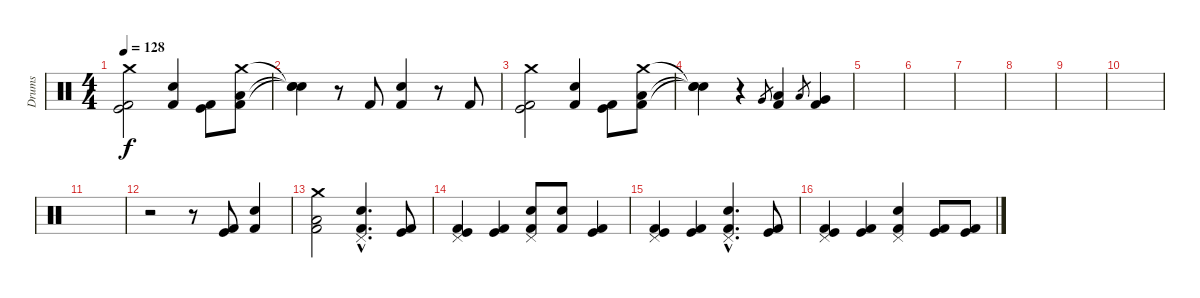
\track ("Drums" "Drums") {instrument percussion}
\staff {score}
\articulation defaults
\ts (4 4)
\tempo 128
\clef neutral
\ks c
("Crash medium (hit)" "Kick (hit)" "Kick (hit) 2").2{dy f} ("Snare (hit) 2" "Kick (hit) 2").4 ("Kick (hit)" "Kick (hit) 2").8 ("Crash medium (hit)" "Low Floor Tom (hit)" "Kick (hit) 2").8 |
("Snare (hit)"{t} "Snare (hit)"{t} "Snare (hit)"{t}).4 r.8 "Kick (hit) 2".8 ("Snare (hit) 2" "Kick (hit) 2").4 r.8 "Kick (hit) 2".8 |
("Crash medium (hit)" "Kick (hit)" "Kick (hit) 2").2 ("Snare (hit) 2" "Kick (hit) 2").4 ("Kick (hit)" "Kick (hit) 2").8 ("Crash medium (hit)" "Low Floor Tom (hit)" "Kick (hit) 2").8 |
("Snare (hit)"{t} "Snare (hit)"{t} "Snare (hit)"{t}).4 r.4 "Very Low Tom (hit)".8{gr} ("Low Tom (hit)" "Kick (hit) 2").4 "Low Floor Tom (hit)".8{gr} ("Very Low Tom (hit)" "Kick (hit) 2").4 |
|
|
|
|
|
|
|
r.2 r.8 ("Kick (hit)" "Kick (hit) 2").8 ("Snare (hit) 2" "Kick (hit) 2").4 |
("Crash medium (hit)" "Low Floor Tom (hit)" "Kick (hit) 2").2 ("Pedal Hi-Hat (hit)"{hac} "Snare (hit) 2"{hac} "Kick (hit) 2"{hac}).4{d} ("Kick (hit)" "Kick (hit) 2").8 |
("Pedal Hi-Hat (hit)" "Kick (hit)" "Kick (hit) 2").4 ("Kick (hit)" "Kick (hit) 2").4 ("Pedal Hi-Hat (hit)" "Snare (hit) 2" "Kick (hit) 2").8 ("Snare (hit) 2" "Kick (hit) 2").8 ("Kick (hit)" "Kick (hit) 2").4 |
("Pedal Hi-Hat (hit)" "Kick (hit)" "Kick (hit) 2").4 ("Kick (hit)" "Kick (hit) 2").4 ("Pedal Hi-Hat (hit)"{hac} "Snare (hit) 2"{hac} "Kick (hit) 2"{hac}).4{d} ("Kick (hit)" "Kick (hit) 2").8 |
("Pedal Hi-Hat (hit)" "Kick (hit)" "Kick (hit) 2").4 ("Kick (hit)" "Kick (hit) 2").4 ("Pedal Hi-Hat (hit)" "Snare (hit) 2" "Kick (hit) 2").4 ("Kick (hit)" "Kick (hit) 2").8 ("Kick (hit)" "Kick (hit) 2").8
